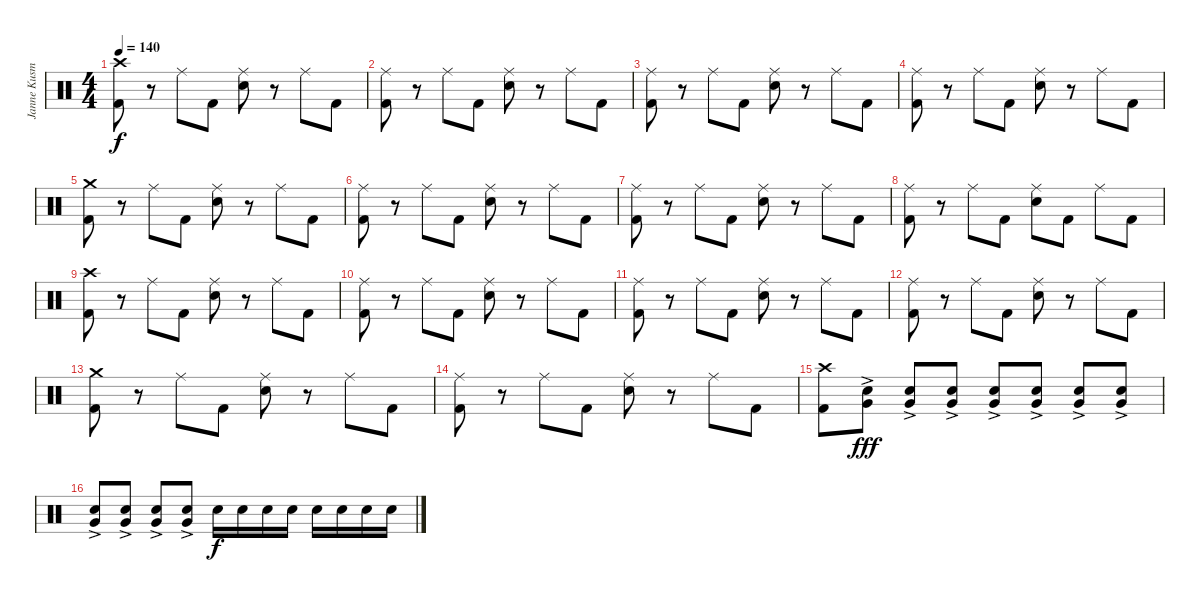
\track ("Janne Kusmin" "Janne Kusm") {instrument percussion}
\staff {score}
\articulation defaults
\ts (4 4)
\tempo 140
\clef neutral
\ks c
("Crash high (hit)" "Kick (hit) 2").8{dy f} r.8 "Ride (middle)".8 "Kick (hit) 2".8 ("Ride (middle)" "Electric Snare (hit)").8 r.8 "Ride (middle)".8 "Kick (hit) 2".8 |
("Ride (middle)" "Kick (hit) 2").8 r.8 "Ride (middle)".8 "Kick (hit) 2".8 ("Ride (middle)" "Electric Snare (hit)").8 r.8 "Ride (middle)".8 "Kick (hit) 2".8 |
("Ride (middle)" "Kick (hit) 2").8 r.8 "Ride (middle)".8 "Kick (hit) 2".8 ("Ride (middle)" "Electric Snare (hit)").8 r.8 "Ride (middle)".8 "Kick (hit) 2".8 |
("Ride (middle)" "Kick (hit) 2").8 r.8 "Ride (middle)".8 "Kick (hit) 2".8 ("Ride (middle)" "Electric Snare (hit)").8 r.8 "Ride (middle)".8 "Kick (hit) 2".8 |
("Crash medium (hit)" "Kick (hit) 2").8 r.8 "Ride (middle)".8 "Kick (hit) 2".8 ("Ride (middle)" "Electric Snare (hit)").8 r.8 "Ride (middle)".8 "Kick (hit) 2".8 |
("Ride (middle)" "Kick (hit) 2").8 r.8 "Ride (middle)".8 "Kick (hit) 2".8 ("Ride (middle)" "Electric Snare (hit)").8 r.8 "Ride (middle)".8 "Kick (hit) 2".8 |
("Ride (middle)" "Kick (hit) 2").8 r.8 "Ride (middle)".8 "Kick (hit) 2".8 ("Ride (middle)" "Electric Snare (hit)").8 r.8 "Ride (middle)".8 "Kick (hit) 2".8 |
("Ride (middle)" "Kick (hit) 2").8 r.8 "Ride (middle)".8 "Kick (hit) 2".8 ("Ride (middle)" "Electric Snare (hit)").8 "Kick (hit) 2".8 "Ride (middle)".8 "Kick (hit) 2".8 |
("Crash high (hit)" "Kick (hit) 2").8 r.8 "Ride (middle)".8 "Kick (hit) 2".8 ("Ride (middle)" "Electric Snare (hit)").8 r.8 "Ride (middle)".8 "Kick (hit) 2".8 |
("Ride (middle)" "Kick (hit) 2").8 r.8 "Ride (middle)".8 "Kick (hit) 2".8 ("Ride (middle)" "Electric Snare (hit)").8 r.8 "Ride (middle)".8 "Kick (hit) 2".8 |
("Ride (middle)" "Kick (hit) 2").8 r.8 "Ride (middle)".8 "Kick (hit) 2".8 ("Ride (middle)" "Electric Snare (hit)").8 r.8 "Ride (middle)".8 "Kick (hit) 2".8 |
("Ride (middle)" "Kick (hit) 2").8 r.8 "Ride (middle)".8 "Kick (hit) 2".8 ("Ride (middle)" "Electric Snare (hit)").8 r.8 "Ride (middle)".8 "Kick (hit) 2".8 |
("Crash medium (hit)" "Kick (hit) 2").8 r.8 "Ride (middle)".8 "Kick (hit) 2".8 ("Ride (middle)" "Electric Snare (hit)").8 r.8 "Ride (middle)".8 "Kick (hit) 2".8 |
("Ride (middle)" "Kick (hit) 2").8 r.8 "Ride (middle)".8 "Kick (hit) 2".8 ("Ride (middle)" "Electric Snare (hit)").8 r.8 "Ride (middle)".8 "Kick (hit) 2".8 |
("Crash high (hit)" "Kick (hit) 2").8 ("Very Low Tom (hit)"{ac} "Electric Snare (hit)").8{dy fff} ("Very Low Tom (hit)"{ac} "Electric Snare (hit)").8 ("Very Low Tom (hit)"{ac} "Electric Snare (hit)").8 ("Very Low Tom (hit)"{ac} "Electric Snare (hit)").8 ("Very Low Tom (hit)"{ac} "Electric Snare (hit)").8 ("Very Low Tom (hit)"{ac} "Electric Snare (hit)").8 ("Very Low Tom (hit)"{ac} "Electric Snare (hit)").8 |
("Very Low Tom (hit)"{ac} "Electric Snare (hit)").8 ("Very Low Tom (hit)"{ac} "Electric Snare (hit)").8 ("Very Low Tom (hit)"{ac} "Electric Snare (hit)").8 ("Very Low Tom (hit)"{ac} "Electric Snare (hit)").8 "Electric Snare (hit)".16{dy f} "Electric Snare (hit)".16 "Electric Snare (hit)".16 "Electric Snare (hit)".16 "Electric Snare (hit)".16 "Electric Snare (hit)".16 "Electric Snare (hit)".16 "Electric Snare (hit)".16
